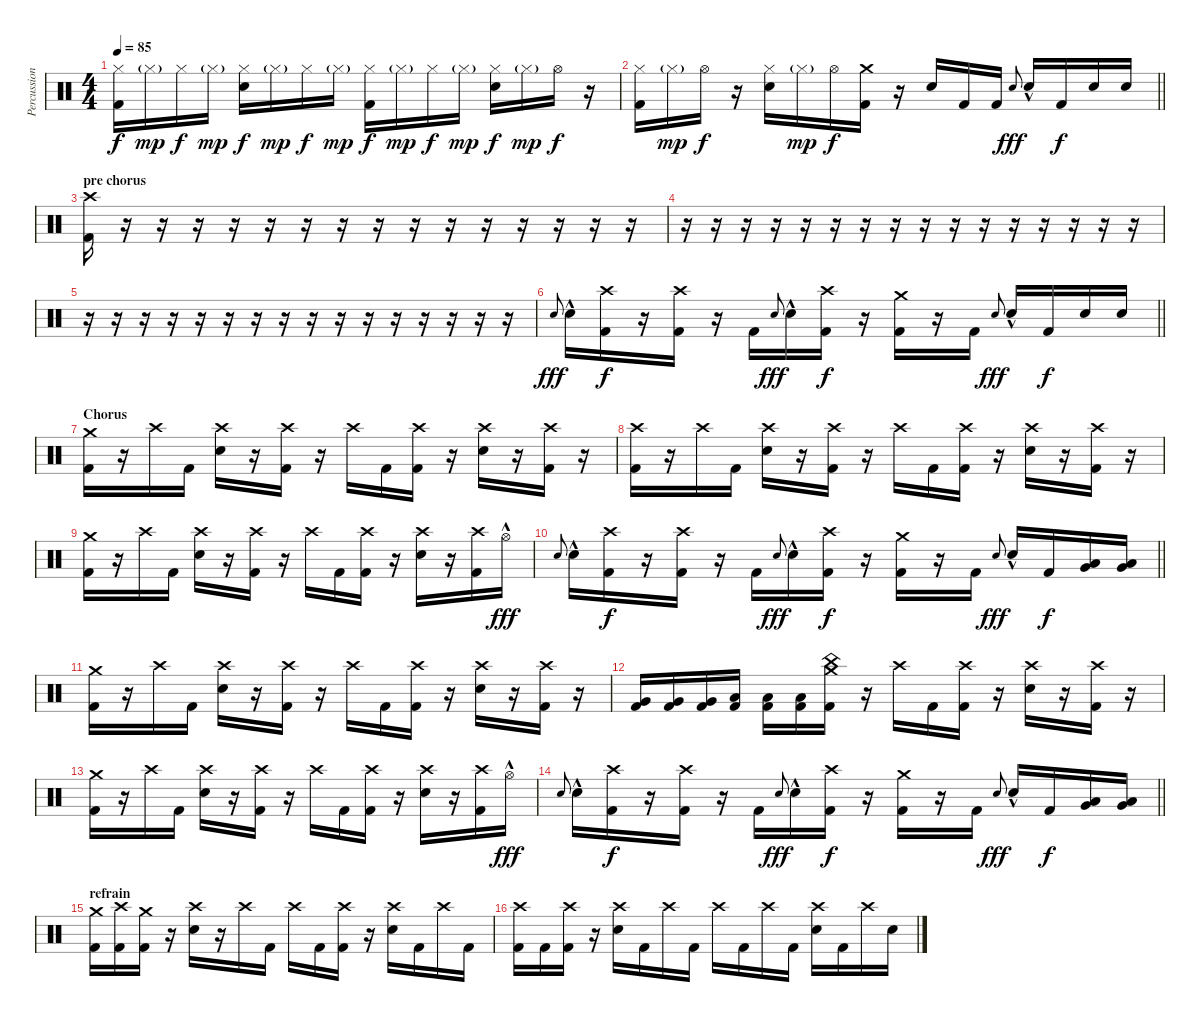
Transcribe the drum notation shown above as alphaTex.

\track ("Percussion" "Percussion") {instrument percussion}
\staff {score}
\articulation defaults
\ts (4 4)
\tempo 85
\clef neutral
\ks c
("Hi-Hat (closed)" "Kick (hit) 2").16{dy f} "Hi-Hat (closed)"{g}.16{dy mp} "Hi-Hat (closed)".16{dy f} "Hi-Hat (closed)"{g}.16{dy mp} ("Hi-Hat (closed)" "Snare (hit) 2").16{dy f} "Hi-Hat (closed)"{g}.16{dy mp} "Hi-Hat (closed)".16{dy f} "Hi-Hat (closed)"{g}.16{dy mp} ("Hi-Hat (closed)" "Kick (hit) 2").16{dy f} "Hi-Hat (closed)"{g}.16{dy mp} "Hi-Hat (closed)".16{dy f} "Hi-Hat (closed)"{g}.16{dy mp} ("Hi-Hat (closed)" "Snare (hit) 2").16{dy f} "Hi-Hat (closed)"{g}.16{dy mp} "Hi-Hat (open)".16{dy f} r.16 |
\barLineRight lightlight
("Hi-Hat (closed)" "Kick (hit) 2").16 "Hi-Hat (closed)"{g}.16{dy mp} "Hi-Hat (open)".16{dy f} r.16 ("Hi-Hat (closed)" "Snare (hit) 2").16 "Hi-Hat (closed)"{g}.16{dy mp} "Hi-Hat (open)".16{dy f} ("Crash medium (hit)" "Kick (hit) 2").16 r.16 "Snare (hit) 2".16 "Kick (hit) 2".16 "Kick (hit) 2".16 "Snare (hit) 2".8{gr onbeat dy fff} "Snare (hit) 2"{hac}.16 "Kick (hit) 2".16{dy f} "Snare (hit) 2".16 "Snare (hit) 2".16 |
\section ("" "pre chorus")
("Crash high (hit)" "Kick (hit) 2").16 r.16 r.16 r.16 r.16 r.16 r.16 r.16 r.16 r.16 r.16 r.16 r.16 r.16 r.16 r.16 |
r.16 r.16 r.16 r.16 r.16 r.16 r.16 r.16 r.16 r.16 r.16 r.16 r.16 r.16 r.16 r.16 |
r.16 r.16 r.16 r.16 r.16 r.16 r.16 r.16 r.16 r.16 r.16 r.16 r.16 r.16 r.16 r.16 |
\barLineRight lightlight "Snare (hit) 2".8{gr onbeat dy fff} "Snare (hit) 2"{hac}.16
("Crash high (hit)" "Kick (hit) 2").16{dy f} r.16 ("Crash high (hit)" "Kick (hit) 2").16 r.16 "Kick (hit) 2".16 "Snare (hit) 2".8{gr onbeat dy fff} "Snare (hit) 2"{hac}.16 ("Crash high (hit)" "Kick (hit) 2").16{dy f} r.16 ("Crash medium (hit)" "Kick (hit) 2").16 r.16 "Kick (hit) 2".16 "Snare (hit) 2".8{gr onbeat dy fff} "Snare (hit) 2"{hac}.16 "Kick (hit) 2".16{dy f} "Snare (hit) 2".16 "Snare (hit) 2".16 |
\section ("" "Chorus")
("Crash medium (hit)" "Kick (hit) 2").16 r.16 "Crash high (hit)".16 "Kick (hit) 2".16 ("Crash high (hit)" "Snare (hit) 2").16 r.16 ("Crash high (hit)" "Kick (hit) 2").16 r.16 "Crash high (hit)".16 "Kick (hit) 2".16 ("Crash high (hit)" "Kick (hit) 2").16 r.16 ("Crash high (hit)" "Snare (hit) 2").16 r.16 ("Crash high (hit)" "Kick (hit) 2").16 r.16 |
("Crash high (hit)" "Kick (hit) 2").16 r.16 "Crash high (hit)".16 "Kick (hit) 2".16 ("Crash high (hit)" "Snare (hit) 2").16 r.16 ("Crash high (hit)" "Kick (hit) 2").16 r.16 "Crash high (hit)".16 "Kick (hit) 2".16 ("Crash high (hit)" "Kick (hit) 2").16 r.16 ("Crash high (hit)" "Snare (hit) 2").16 r.16 ("Crash high (hit)" "Kick (hit) 2").16 r.16 |
("Crash medium (hit)" "Kick (hit) 2").16 r.16 "Crash high (hit)".16 "Kick (hit) 2".16 ("Crash high (hit)" "Snare (hit) 2").16 r.16 ("Crash high (hit)" "Kick (hit) 2").16 r.16 "Crash high (hit)".16 "Kick (hit) 2".16 ("Crash high (hit)" "Kick (hit) 2").16 r.16 ("Crash high (hit)" "Snare (hit) 2").16 r.16 ("Crash high (hit)" "Kick (hit) 2").16 "Hi-Hat (open)"{hac}.16{dy fff} |
\barLineRight lightlight "Snare (hit) 2".8{gr onbeat} "Snare (hit) 2"{hac}.16
("Crash high (hit)" "Kick (hit) 2").16{dy f} r.16 ("Crash high (hit)" "Kick (hit) 2").16 r.16 "Kick (hit) 2".16 "Snare (hit) 2".8{gr onbeat dy fff} "Snare (hit) 2"{hac}.16 ("Crash high (hit)" "Kick (hit) 2").16{dy f} r.16 ("Crash medium (hit)" "Kick (hit) 2").16 r.16 "Kick (hit) 2".16 "Snare (hit) 2".8{gr onbeat dy fff} "Snare (hit) 2"{hac}.16 "Kick (hit) 2".16{dy f} ("Very Low Tom (hit)" "Low Floor Tom (hit)").16 ("Very Low Tom (hit)" "Low Floor Tom (hit)").16 |
("Crash medium (hit)" "Kick (hit) 2").16 r.16 "Crash high (hit)".16 "Kick (hit) 2".16 ("Crash high (hit)" "Snare (hit) 2").16 r.16 ("Crash high (hit)" "Kick (hit) 2").16 r.16 "Crash high (hit)".16 "Kick (hit) 2".16 ("Crash high (hit)" "Kick (hit) 2").16 r.16 ("Crash high (hit)" "Snare (hit) 2").16 r.16 ("Crash high (hit)" "Kick (hit) 2").16 r.16 |
("Very Low Tom (hit)" "Kick (hit) 2").16 ("Very Low Tom (hit)" "Kick (hit) 2").16 ("Very Low Tom (hit)" "Kick (hit) 2").16 ("Low Floor Tom (hit)" "Kick (hit) 2").16 ("Low Floor Tom (hit)" "Kick (hit) 2").16 ("Low Floor Tom (hit)" "Kick (hit) 2").16 ("China (hit)" "Crash medium (hit)" "Kick (hit) 2").16 r.16 "Crash high (hit)".16 "Kick (hit) 2".16 ("Crash high (hit)" "Kick (hit) 2").16 r.16 ("Crash high (hit)" "Snare (hit) 2").16 r.16 ("Crash high (hit)" "Kick (hit) 2").16 r.16 |
("Crash medium (hit)" "Kick (hit) 2").16 r.16 "Crash high (hit)".16 "Kick (hit) 2".16 ("Crash high (hit)" "Snare (hit) 2").16 r.16 ("Crash high (hit)" "Kick (hit) 2").16 r.16 "Crash high (hit)".16 "Kick (hit) 2".16 ("Crash high (hit)" "Kick (hit) 2").16 r.16 ("Crash high (hit)" "Snare (hit) 2").16 r.16 ("Crash high (hit)" "Kick (hit) 2").16 "Hi-Hat (open)"{hac}.16{dy fff} |
\barLineRight lightlight "Snare (hit) 2".8{gr onbeat} "Snare (hit) 2"{hac}.16
("Crash high (hit)" "Kick (hit) 2").16{dy f} r.16 ("Crash high (hit)" "Kick (hit) 2").16 r.16 "Kick (hit) 2".16 "Snare (hit) 2".8{gr onbeat dy fff} "Snare (hit) 2"{hac}.16 ("Crash high (hit)" "Kick (hit) 2").16{dy f} r.16 ("Crash medium (hit)" "Kick (hit) 2").16 r.16 "Kick (hit) 2".16 "Snare (hit) 2".8{gr onbeat dy fff} "Snare (hit) 2"{hac}.16 "Kick (hit) 2".16{dy f} ("Very Low Tom (hit)" "Low Floor Tom (hit)").16 ("Very Low Tom (hit)" "Low Floor Tom (hit)").16 |
\section ("" "refrain")
("Crash medium (hit)" "Kick (hit) 2").16 ("Crash high (hit)" "Kick (hit) 2").16 ("Crash medium (hit)" "Kick (hit) 2").16 r.16 ("Crash high (hit)" "Snare (hit) 2").16 r.16 "Crash high (hit)".16 "Kick (hit) 2".16 "Crash high (hit)".16 "Kick (hit) 2".16 ("Crash high (hit)" "Kick (hit) 2").16 r.16 ("Crash high (hit)" "Snare (hit) 2").16 "Kick (hit) 2".16 "Crash high (hit)".16 "Kick (hit) 2".16 |
("Crash high (hit)" "Kick (hit) 2").16 "Kick (hit) 2".16 ("Crash high (hit)" "Kick (hit) 2").16 r.16 ("Crash high (hit)" "Snare (hit) 2").16 "Kick (hit) 2".16 "Crash high (hit)".16 "Kick (hit) 2".16 "Crash high (hit)".16 "Kick (hit) 2".16 "Crash high (hit)".16 "Kick (hit) 2".16 ("Crash high (hit)" "Snare (hit) 2").16 "Kick (hit) 2".16 "Crash high (hit)".16 "Snare (hit) 2".16
